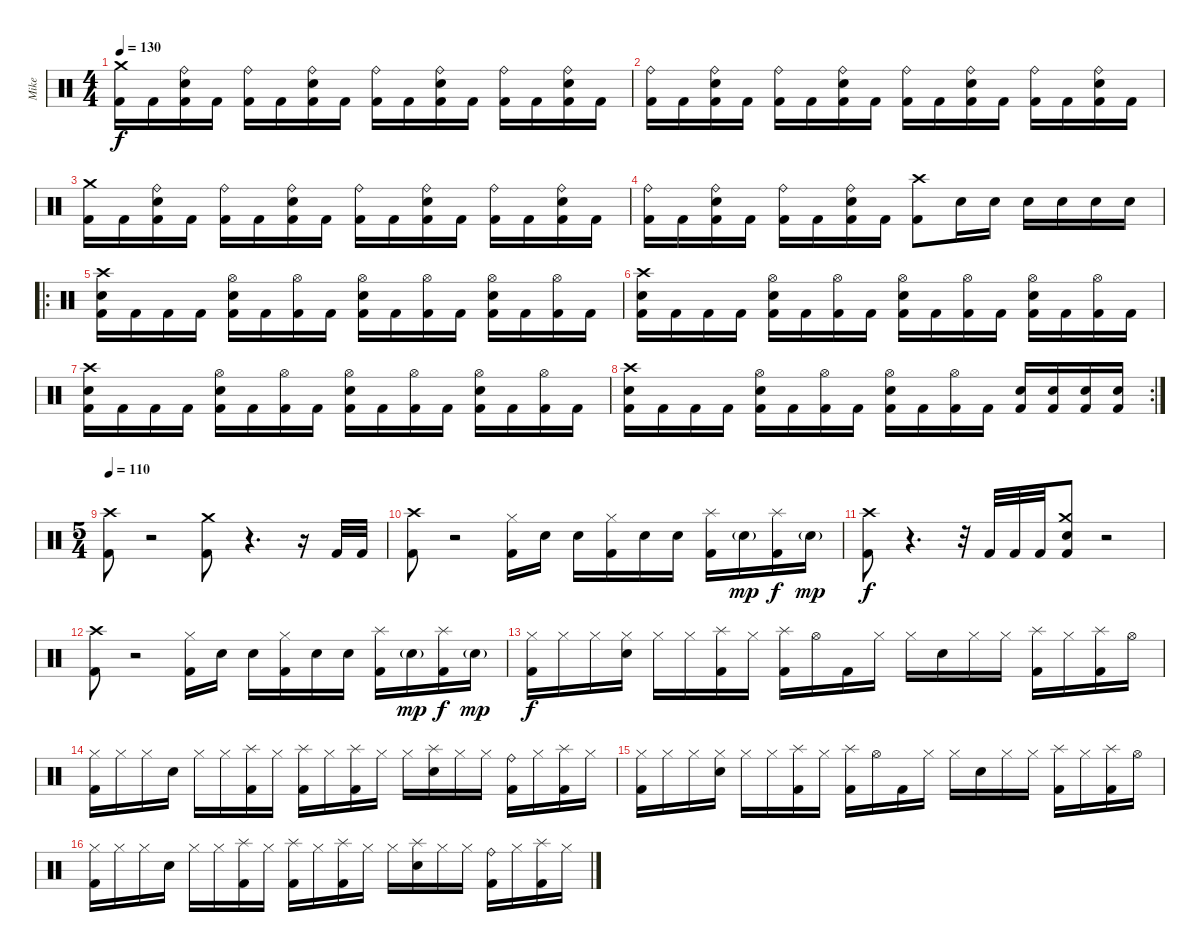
\track ("Mike" "Mike") {instrument percussion}
\staff {score}
\articulation defaults
\ts (4 4)
\tempo 130
\clef neutral
\ks c
("Kick (hit) 2" "Crash medium (hit)").16{dy f} "Kick (hit) 2".16 ("Kick (hit) 2" "Electric Snare (hit)" "Ride (bell)").16 "Kick (hit) 2".16 ("Kick (hit) 2" "Ride (bell)").16 "Kick (hit) 2".16 ("Kick (hit) 2" "Electric Snare (hit)" "Ride (bell)").16 "Kick (hit) 2".16 ("Kick (hit) 2" "Ride (bell)").16 "Kick (hit) 2".16 ("Kick (hit) 2" "Electric Snare (hit)" "Ride (bell)").16 "Kick (hit) 2".16 ("Kick (hit) 2" "Ride (bell)").16 "Kick (hit) 2".16 ("Kick (hit) 2" "Electric Snare (hit)" "Ride (bell)").16 "Kick (hit) 2".16 |
("Kick (hit) 2" "Ride (bell)").16 "Kick (hit) 2".16 ("Kick (hit) 2" "Electric Snare (hit)" "Ride (bell)").16 "Kick (hit) 2".16 ("Kick (hit) 2" "Ride (bell)").16 "Kick (hit) 2".16 ("Kick (hit) 2" "Electric Snare (hit)" "Ride (bell)").16 "Kick (hit) 2".16 ("Kick (hit) 2" "Ride (bell)").16 "Kick (hit) 2".16 ("Kick (hit) 2" "Electric Snare (hit)" "Ride (bell)").16 "Kick (hit) 2".16 ("Kick (hit) 2" "Ride (bell)").16 "Kick (hit) 2".16 ("Kick (hit) 2" "Electric Snare (hit)" "Ride (bell)").16 "Kick (hit) 2".16 |
("Kick (hit) 2" "Crash medium (hit)").16 "Kick (hit) 2".16 ("Kick (hit) 2" "Electric Snare (hit)" "Ride (bell)").16 "Kick (hit) 2".16 ("Kick (hit) 2" "Ride (bell)").16 "Kick (hit) 2".16 ("Kick (hit) 2" "Electric Snare (hit)" "Ride (bell)").16 "Kick (hit) 2".16 ("Kick (hit) 2" "Ride (bell)").16 "Kick (hit) 2".16 ("Kick (hit) 2" "Electric Snare (hit)" "Ride (bell)").16 "Kick (hit) 2".16 ("Kick (hit) 2" "Ride (bell)").16 "Kick (hit) 2".16 ("Kick (hit) 2" "Electric Snare (hit)" "Ride (bell)").16 "Kick (hit) 2".16 |
("Kick (hit) 2" "Ride (bell)").16 "Kick (hit) 2".16 ("Kick (hit) 2" "Electric Snare (hit)" "Ride (bell)").16 "Kick (hit) 2".16 ("Kick (hit) 2" "Ride (bell)").16 "Kick (hit) 2".16 ("Kick (hit) 2" "Electric Snare (hit)" "Ride (bell)").16 "Kick (hit) 2".16 ("Kick (hit) 2" "Crash high (hit)").8 "Electric Snare (hit)".16 "Electric Snare (hit)".16 "Electric Snare (hit)".16 "Electric Snare (hit)".16 "Electric Snare (hit)".16 "Electric Snare (hit)".16 |
\ro
("Kick (hit) 2" "Electric Snare (hit)" "Crash high (hit)").16 "Kick (hit) 2".16 "Kick (hit) 2".16 "Kick (hit) 2".16 ("Kick (hit) 2" "Electric Snare (hit)" "Hi-Hat (open)").16 "Kick (hit) 2".16 ("Kick (hit) 2" "Hi-Hat (open)").16 "Kick (hit) 2".16 ("Kick (hit) 2" "Electric Snare (hit)" "Hi-Hat (open)").16 "Kick (hit) 2".16 ("Kick (hit) 2" "Hi-Hat (open)").16 "Kick (hit) 2".16 ("Kick (hit) 2" "Electric Snare (hit)" "Hi-Hat (open)").16 "Kick (hit) 2".16 ("Kick (hit) 2" "Hi-Hat (open)").16 "Kick (hit) 2".16 |
("Kick (hit) 2" "Electric Snare (hit)" "Crash high (hit)").16 "Kick (hit) 2".16 "Kick (hit) 2".16 "Kick (hit) 2".16 ("Kick (hit) 2" "Electric Snare (hit)" "Hi-Hat (open)").16 "Kick (hit) 2".16 ("Kick (hit) 2" "Hi-Hat (open)").16 "Kick (hit) 2".16 ("Kick (hit) 2" "Electric Snare (hit)" "Hi-Hat (open)").16 "Kick (hit) 2".16 ("Kick (hit) 2" "Hi-Hat (open)").16 "Kick (hit) 2".16 ("Kick (hit) 2" "Electric Snare (hit)" "Hi-Hat (open)").16 "Kick (hit) 2".16 ("Kick (hit) 2" "Hi-Hat (open)").16 "Kick (hit) 2".16 |
("Kick (hit) 2" "Electric Snare (hit)" "Crash high (hit)").16 "Kick (hit) 2".16 "Kick (hit) 2".16 "Kick (hit) 2".16 ("Kick (hit) 2" "Electric Snare (hit)" "Hi-Hat (open)").16 "Kick (hit) 2".16 ("Kick (hit) 2" "Hi-Hat (open)").16 "Kick (hit) 2".16 ("Kick (hit) 2" "Electric Snare (hit)" "Hi-Hat (open)").16 "Kick (hit) 2".16 ("Kick (hit) 2" "Hi-Hat (open)").16 "Kick (hit) 2".16 ("Kick (hit) 2" "Electric Snare (hit)" "Hi-Hat (open)").16 "Kick (hit) 2".16 ("Kick (hit) 2" "Hi-Hat (open)").16 "Kick (hit) 2".16 |
\rc 2
("Kick (hit) 2" "Electric Snare (hit)" "Crash high (hit)").16 "Kick (hit) 2".16 "Kick (hit) 2".16 "Kick (hit) 2".16 ("Kick (hit) 2" "Electric Snare (hit)" "Hi-Hat (open)").16 "Kick (hit) 2".16 ("Kick (hit) 2" "Hi-Hat (open)").16 "Kick (hit) 2".16 ("Kick (hit) 2" "Electric Snare (hit)" "Hi-Hat (open)").16 "Kick (hit) 2".16 ("Kick (hit) 2" "Hi-Hat (open)").16 "Kick (hit) 2".16 ("Kick (hit) 2" "Electric Snare (hit)").16 ("Kick (hit) 2" "Electric Snare (hit)").16 ("Kick (hit) 2" "Electric Snare (hit)").16 ("Kick (hit) 2" "Electric Snare (hit)").16 |
\ts (5 4)
\tempo 110
("Kick (hit) 2" "Crash high (hit)").8 r.2 ("Kick (hit) 2" "Crash medium (hit)").8 r.4{d} r.16 "Kick (hit) 2".32 "Kick (hit) 2".32 |
("Kick (hit) 2" "Crash high (hit)").8 r.2 ("Kick (hit) 2" "Hi-Hat (closed)").16 "Electric Snare (hit)".16 "Electric Snare (hit)".16 ("Kick (hit) 2" "Hi-Hat (closed)").16 "Electric Snare (hit)".16 "Electric Snare (hit)".16 ("Kick (hit) 2" "Splash (hit)").16 "Electric Snare (hit)"{g}.16{dy mp} ("Kick (hit) 2" "Splash (hit)").16{dy f} "Electric Snare (hit)"{g}.16{dy mp} |
("Kick (hit) 2" "Crash high (hit)").8{dy f} r.4{d} r.32 "Kick (hit) 2".32 "Kick (hit) 2".32 "Kick (hit) 2".32 ("Kick (hit) 2" "Electric Snare (hit)" "Crash medium (hit)").8 r.2 |
("Kick (hit) 2" "Crash high (hit)").8 r.2 ("Kick (hit) 2" "Hi-Hat (closed)").16 "Electric Snare (hit)".16 "Electric Snare (hit)".16 ("Kick (hit) 2" "Hi-Hat (closed)").16 "Electric Snare (hit)".16 "Electric Snare (hit)".16 ("Kick (hit) 2" "Splash (hit)").16 "Electric Snare (hit)"{g}.16{dy mp} ("Kick (hit) 2" "Splash (hit)").16{dy f} "Electric Snare (hit)"{g}.16{dy mp} |
("Kick (hit) 2" "Hi-Hat (closed)").16{dy f} "Hi-Hat (closed)".16 "Hi-Hat (closed)".16 ("Electric Snare (hit)" "Hi-Hat (closed)").16 "Hi-Hat (closed)".16 "Hi-Hat (closed)".16 ("Kick (hit) 2" "Splash (hit)").16 "Hi-Hat (closed)".16 ("Kick (hit) 2" "Splash (hit)").16 "Hi-Hat (open)".16 "Kick (hit) 2".16 "Hi-Hat (closed)".16 "Hi-Hat (closed)".16 "Electric Snare (hit)".16 "Hi-Hat (closed)".16 "Hi-Hat (closed)".16 ("Kick (hit) 2" "Splash (hit)").16 "Hi-Hat (closed)".16 ("Kick (hit) 2" "Splash (hit)").16 "Hi-Hat (open)".16 |
("Kick (hit) 2" "Hi-Hat (closed)").16 "Hi-Hat (closed)".16 "Hi-Hat (closed)".16 "Electric Snare (hit)".16 "Hi-Hat (closed)".16 "Hi-Hat (closed)".16 ("Kick (hit) 2" "Splash (hit)").16 "Hi-Hat (closed)".16 ("Kick (hit) 2" "Splash (hit)").16 "Hi-Hat (closed)".16 ("Kick (hit) 2" "Splash (hit)").16 "Hi-Hat (closed)".16 "Hi-Hat (closed)".16 ("Electric Snare (hit)" "Splash (hit)").16 "Hi-Hat (closed)".16 "Hi-Hat (closed)".16 ("Kick (hit) 2" "Ride (bell)").16 "Hi-Hat (closed)".16 ("Kick (hit) 2" "Splash (hit)").16 "Hi-Hat (closed)".16 |
("Kick (hit) 2" "Hi-Hat (closed)").16 "Hi-Hat (closed)".16 "Hi-Hat (closed)".16 ("Electric Snare (hit)" "Hi-Hat (closed)").16 "Hi-Hat (closed)".16 "Hi-Hat (closed)".16 ("Kick (hit) 2" "Splash (hit)").16 "Hi-Hat (closed)".16 ("Kick (hit) 2" "Splash (hit)").16 "Hi-Hat (open)".16 "Kick (hit) 2".16 "Hi-Hat (closed)".16 "Hi-Hat (closed)".16 "Electric Snare (hit)".16 "Hi-Hat (closed)".16 "Hi-Hat (closed)".16 ("Kick (hit) 2" "Splash (hit)").16 "Hi-Hat (closed)".16 ("Kick (hit) 2" "Splash (hit)").16 "Hi-Hat (open)".16 |
("Kick (hit) 2" "Hi-Hat (closed)").16 "Hi-Hat (closed)".16 "Hi-Hat (closed)".16 "Electric Snare (hit)".16 "Hi-Hat (closed)".16 "Hi-Hat (closed)".16 ("Kick (hit) 2" "Splash (hit)").16 "Hi-Hat (closed)".16 ("Kick (hit) 2" "Splash (hit)").16 "Hi-Hat (closed)".16 ("Kick (hit) 2" "Splash (hit)").16 "Hi-Hat (closed)".16 "Hi-Hat (closed)".16 ("Electric Snare (hit)" "Splash (hit)").16 "Hi-Hat (closed)".16 "Hi-Hat (closed)".16 ("Kick (hit) 2" "Ride (bell)").16 "Hi-Hat (closed)".16 ("Kick (hit) 2" "Splash (hit)").16 "Hi-Hat (closed)".16
